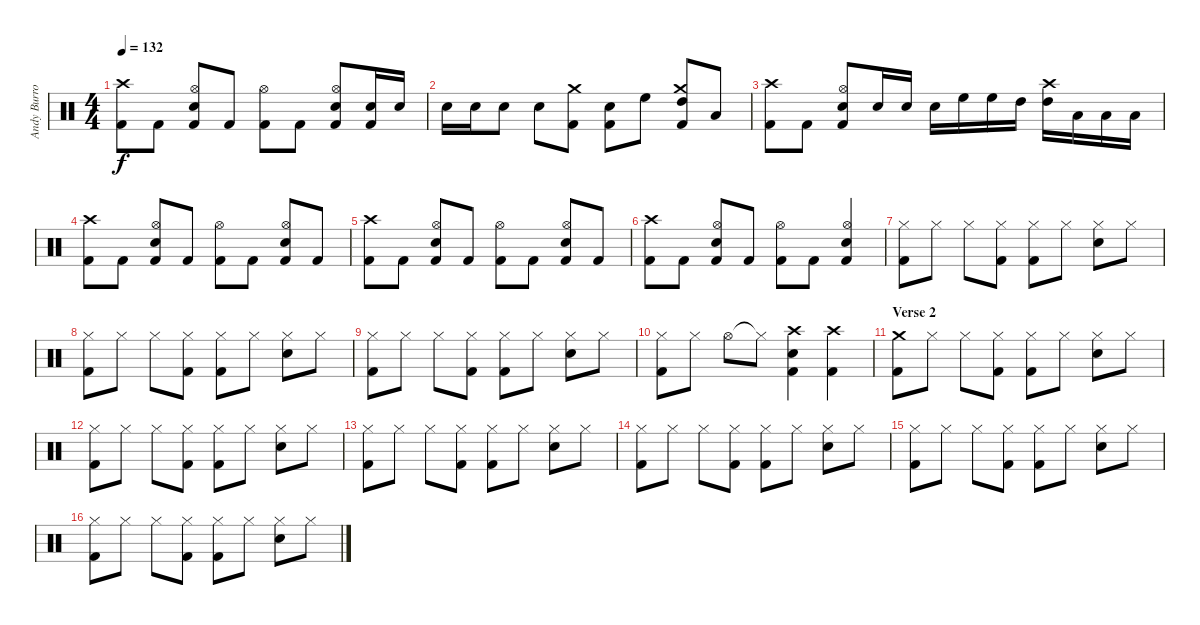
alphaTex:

\track ("Andy Burrows" "Andy Burro") {instrument percussion}
\staff {score}
\articulation defaults
\ts (4 4)
\tempo 132
\clef neutral
\ks c
("Crash high (hit)" "Kick (hit) 2").8{dy f} "Kick (hit) 2".8 ("Hi-Hat (open)" "Snare (hit) 2" "Kick (hit) 2").8 "Kick (hit) 2".8 ("Hi-Hat (open)" "Kick (hit) 2").8 "Kick (hit) 2".8 ("Hi-Hat (open)" "Snare (hit) 2" "Kick (hit) 2").8 ("Snare (hit) 2" "Kick (hit) 2").16 "Snare (hit) 2".16 |
"Snare (hit) 2".16 "Snare (hit) 2".16 "Snare (hit) 2".8 "Snare (hit) 2".8 ("Crash medium (hit)" "Kick (hit) 2").8 ("Snare (hit) 2" "Kick (hit) 2").8 "High Floor Tom (hit)".8 ("Crash medium (hit)" "High Tom (hit)" "Kick (hit) 2").8 "Low Tom (hit)".8 |
("Crash high (hit)" "Kick (hit) 2").8 "Kick (hit) 2".8 ("Hi-Hat (open)" "Snare (hit) 2" "Kick (hit) 2").8 "Snare (hit) 2".16 "Snare (hit) 2".16 "Snare (hit) 2".16 "High Floor Tom (hit)".16 "High Floor Tom (hit)".16 "High Tom (hit)".16 ("Crash high (hit)" "High Tom (hit)").16 "Low Tom (hit)".16 "Low Tom (hit)".16 "Low Tom (hit)".16 |
("Crash high (hit)" "Kick (hit) 2").8 "Kick (hit) 2".8 ("Hi-Hat (open)" "Snare (hit) 2" "Kick (hit) 2").8 "Kick (hit) 2".8 ("Hi-Hat (open)" "Kick (hit) 2").8 "Kick (hit) 2".8 ("Hi-Hat (open)" "Snare (hit) 2" "Kick (hit) 2").8 "Kick (hit) 2".8 |
("Crash high (hit)" "Kick (hit) 2").8{volume 11} "Kick (hit) 2".8 ("Hi-Hat (open)" "Snare (hit) 2" "Kick (hit) 2").8 "Kick (hit) 2".8 ("Hi-Hat (open)" "Kick (hit) 2").8 "Kick (hit) 2".8 ("Hi-Hat (open)" "Snare (hit) 2" "Kick (hit) 2").8 "Kick (hit) 2".8 |
("Crash high (hit)" "Kick (hit) 2").8 "Kick (hit) 2".8 ("Hi-Hat (open)" "Snare (hit) 2" "Kick (hit) 2").8 "Kick (hit) 2".8 ("Hi-Hat (open)" "Kick (hit) 2").8 "Kick (hit) 2".8 ("Hi-Hat (open)" "Snare (hit) 2" "Kick (hit) 2").4 |
("Hi-Hat (closed)" "Kick (hit) 2").8 "Hi-Hat (closed)".8 "Hi-Hat (closed)".8 ("Hi-Hat (closed)" "Kick (hit) 2").8 ("Hi-Hat (closed)" "Kick (hit) 2").8 "Hi-Hat (closed)".8 ("Hi-Hat (closed)" "Electric Snare (hit)").8 "Hi-Hat (closed)".8 |
("Hi-Hat (closed)" "Kick (hit) 2").8 "Hi-Hat (closed)".8 "Hi-Hat (closed)".8 ("Hi-Hat (closed)" "Kick (hit) 2").8 ("Hi-Hat (closed)" "Kick (hit) 2").8 "Hi-Hat (closed)".8 ("Hi-Hat (closed)" "Electric Snare (hit)").8 "Hi-Hat (closed)".8 |
("Hi-Hat (closed)" "Kick (hit) 2").8 "Hi-Hat (closed)".8 "Hi-Hat (closed)".8 ("Hi-Hat (closed)" "Kick (hit) 2").8 ("Hi-Hat (closed)" "Kick (hit) 2").8 "Hi-Hat (closed)".8 ("Hi-Hat (closed)" "Electric Snare (hit)").8 "Hi-Hat (closed)".8 |
("Hi-Hat (closed)" "Kick (hit) 2").8 "Hi-Hat (closed)".8 "Hi-Hat (open)".8 "Hi-Hat (closed)"{t}.8 ("Crash high (hit)" "Snare (hit) 2" "Kick (hit) 2").4 ("Crash high (hit)" "Kick (hit) 2").4 |
\section ("" "Verse 2")
("Crash medium (hit)" "Kick (hit) 2").8 "Hi-Hat (closed)".8 "Hi-Hat (closed)".8 ("Hi-Hat (closed)" "Kick (hit) 2").8 ("Hi-Hat (closed)" "Kick (hit) 2").8 "Hi-Hat (closed)".8 ("Hi-Hat (closed)" "Electric Snare (hit)").8 "Hi-Hat (closed)".8 |
("Hi-Hat (closed)" "Kick (hit) 2").8 "Hi-Hat (closed)".8 "Hi-Hat (closed)".8 ("Hi-Hat (closed)" "Kick (hit) 2").8 ("Hi-Hat (closed)" "Kick (hit) 2").8 "Hi-Hat (closed)".8 ("Hi-Hat (closed)" "Electric Snare (hit)").8 "Hi-Hat (closed)".8 |
("Hi-Hat (closed)" "Kick (hit) 2").8 "Hi-Hat (closed)".8 "Hi-Hat (closed)".8 ("Hi-Hat (closed)" "Kick (hit) 2").8 ("Hi-Hat (closed)" "Kick (hit) 2").8 "Hi-Hat (closed)".8 ("Hi-Hat (closed)" "Electric Snare (hit)").8 "Hi-Hat (closed)".8 |
("Hi-Hat (closed)" "Kick (hit) 2").8 "Hi-Hat (closed)".8 "Hi-Hat (closed)".8 ("Hi-Hat (closed)" "Kick (hit) 2").8 ("Hi-Hat (closed)" "Kick (hit) 2").8 "Hi-Hat (closed)".8 ("Hi-Hat (closed)" "Electric Snare (hit)").8 "Hi-Hat (closed)".8 |
("Hi-Hat (closed)" "Kick (hit) 2").8 "Hi-Hat (closed)".8 "Hi-Hat (closed)".8 ("Hi-Hat (closed)" "Kick (hit) 2").8 ("Hi-Hat (closed)" "Kick (hit) 2").8 "Hi-Hat (closed)".8 ("Hi-Hat (closed)" "Electric Snare (hit)").8 "Hi-Hat (closed)".8 |
("Hi-Hat (closed)" "Kick (hit) 2").8 "Hi-Hat (closed)".8 "Hi-Hat (closed)".8 ("Hi-Hat (closed)" "Kick (hit) 2").8 ("Hi-Hat (closed)" "Kick (hit) 2").8 "Hi-Hat (closed)".8 ("Hi-Hat (closed)" "Electric Snare (hit)").8 "Hi-Hat (closed)".8
